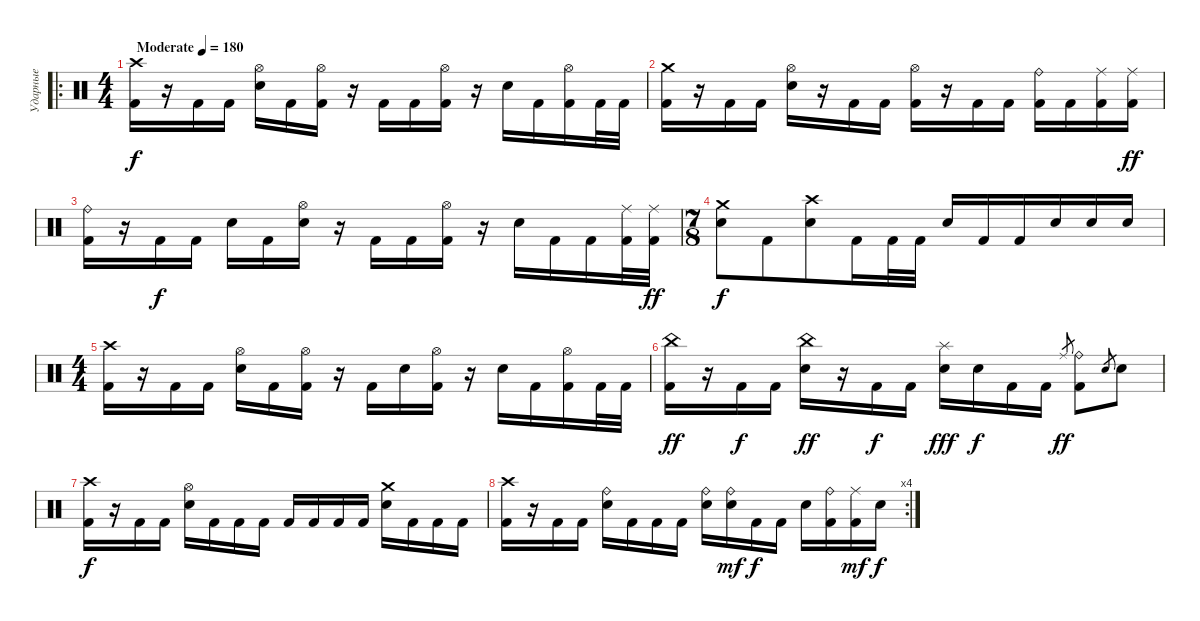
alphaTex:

\track ("Ударные" "Ударные") {instrument percussion}
\staff {score}
\articulation defaults
\ro
\ts (4 4)
\tempo (180 "Moderate")
\clef neutral
\ks c
("Crash high (hit)" "Kick (hit) 2").16{dy f} r.16 "Kick (hit) 2".16 "Kick (hit) 2".16 ("Hi-Hat (open)" "Electric Snare (hit)").16 "Kick (hit) 2".16 ("Hi-Hat (open)" "Kick (hit) 2").16 r.16 "Kick (hit) 2".16 "Kick (hit) 2".16 ("Hi-Hat (open)" "Kick (hit) 2").16 r.16 "Electric Snare (hit)".16 "Kick (hit) 2".16 ("Hi-Hat (open)" "Kick (hit) 2").16 "Kick (hit) 2".32 "Kick (hit) 2".32 |
("Crash medium (hit)" "Kick (hit) 2").16 r.16 "Kick (hit) 2".16 "Kick (hit) 2".16 ("Hi-Hat (open)" "Electric Snare (hit)").16 r.16 "Kick (hit) 2".16 "Kick (hit) 2".16 ("Hi-Hat (open)" "Kick (hit) 2").16 r.16 "Kick (hit) 2".16 "Kick (hit) 2".16 ("Ride (bell)" "Kick (hit) 2").16 "Kick (hit) 2".16 ("Ride (middle)" "Kick (hit) 2").16 ("Ride (middle)" "Kick (hit) 2").16{dy ff} |
("Ride (bell)" "Kick (hit) 2").16 r.16 "Kick (hit) 2".16{dy f} "Kick (hit) 2".16 "Electric Snare (hit)".16 "Kick (hit) 2".16 ("Hi-Hat (open)" "Electric Snare (hit)").16 r.16 "Kick (hit) 2".16 "Kick (hit) 2".16 ("Hi-Hat (open)" "Kick (hit) 2").16 r.16 "Electric Snare (hit)".16 "Kick (hit) 2".16 "Kick (hit) 2".16 ("Ride (middle)" "Kick (hit) 2").32 ("Ride (middle)" "Kick (hit) 2").32{dy ff} |
\ts (7 8)
("Crash medium (hit)" "Electric Snare (hit)").8{dy f} "Kick (hit) 2".8 ("Crash high (hit)" "Electric Snare (hit)").8 "Kick (hit) 2".16 "Kick (hit) 2".32 "Kick (hit) 2".32 "Electric Snare (hit)".16 "Kick (hit) 2".16 "Kick (hit) 2".16 "Electric Snare (hit)".16 "Electric Snare (hit)".16 "Electric Snare (hit)".16 |
\ts (4 4)
("Crash high (hit)" "Kick (hit) 2").16 r.16 "Kick (hit) 2".16 "Kick (hit) 2".16 ("Hi-Hat (open)" "Electric Snare (hit)").16 "Kick (hit) 2".16 ("Hi-Hat (open)" "Kick (hit) 2").16 r.16 "Kick (hit) 2".16 "Snare (hit)".16 ("Hi-Hat (open)" "Kick (hit) 2").16 r.16 "Electric Snare (hit)".16 "Kick (hit) 2".16 ("Hi-Hat (open)" "Kick (hit) 2").16 "Kick (hit) 2".32 "Kick (hit) 2".32 |
("China (hit)" "Kick (hit) 2").16{dy ff} r.16 "Kick (hit) 2".16{dy f} "Kick (hit) 2".16 ("China (hit)" "Electric Snare (hit)").16{dy ff} r.16 "Kick (hit) 2".16{dy f} "Kick (hit) 2".16 ("Splash (hit)" "Electric Snare (hit)").16{dy fff} "Electric Snare (hit)".16{dy f} "Kick (hit) 2".16 "Kick (hit) 2".16 "Ride (middle)".8{gr dy ff} ("Ride (bell)" "Kick (hit) 2").8 "Electric Snare (hit)".8{gr} "Electric Snare (hit)".8 |
("Crash high (hit)" "Kick (hit) 2").16{dy f} r.16 "Kick (hit) 2".16 "Kick (hit) 2".16 ("Hi-Hat (open)" "Electric Snare (hit)").16 "Kick (hit) 2".16 "Kick (hit) 2".16 "Kick (hit) 2".16 "Kick (hit) 2".16 "Kick (hit) 2".16 "Kick (hit) 2".16 "Kick (hit) 2".16 ("Crash medium (hit)" "Electric Snare (hit)").16 "Kick (hit) 2".16 "Kick (hit) 2".16 "Kick (hit) 2".16 |
\rc 4
("Crash high (hit)" "Kick (hit) 2").16 r.16 "Kick (hit) 2".16 "Kick (hit) 2".16 ("Ride (bell)" "Electric Snare (hit)").16 "Kick (hit) 2".16 "Kick (hit) 2".16 "Kick (hit) 2".16 ("Ride (bell)" "Electric Snare (hit)").16 ("Ride (bell)" "Electric Snare (hit)").16{dy mf} "Kick (hit) 2".16{dy f} "Kick (hit) 2".16 "Electric Snare (hit)".16 ("Ride (bell)" "Kick (hit) 2").16 ("Ride (middle)" "Kick (hit) 2").16{dy mf} "Electric Snare (hit)".16{dy f}
